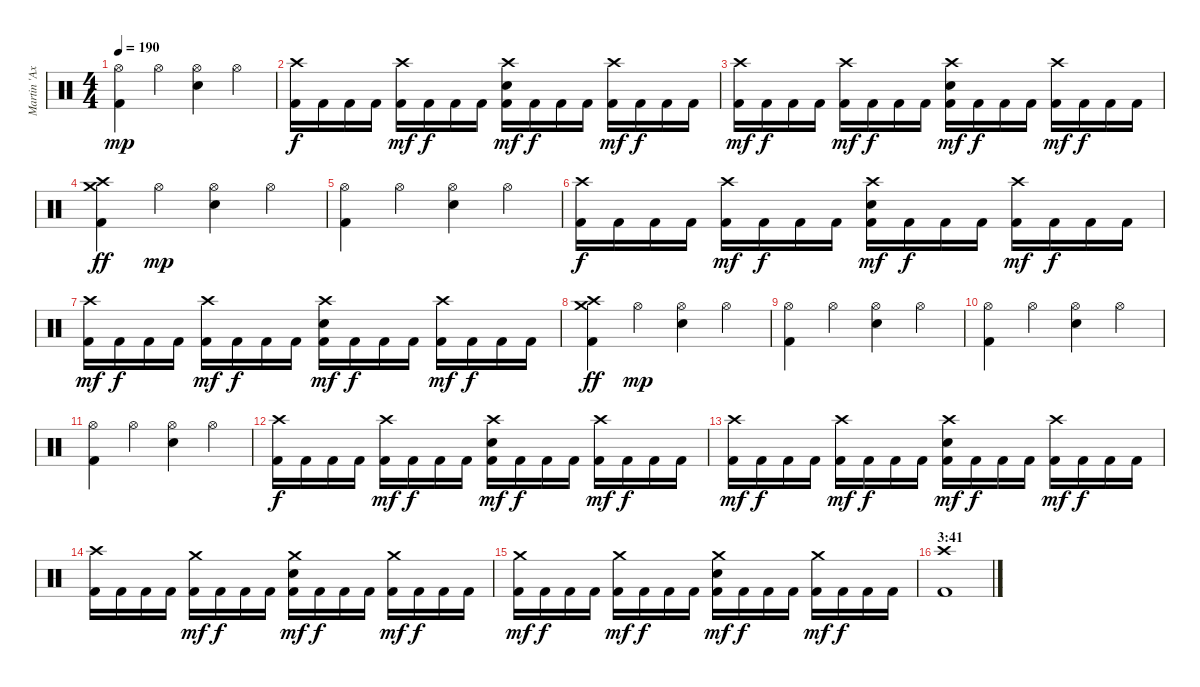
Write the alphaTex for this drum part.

\track ("Martin 'Axe' Axenroth" "Martin 'Ax") {instrument percussion}
\staff {score}
\articulation defaults
\ts (4 4)
\tempo 190
\clef neutral
\ks c
("Kick (hit) 2" "Hi-Hat (open)").4{dy mp} "Hi-Hat (open)".4 ("Electric Snare (hit)" "Hi-Hat (open)").4 "Hi-Hat (open)".4 |
("Kick (hit) 2" "Crash high (hit)").16{dy f} "Kick (hit) 2".16 "Kick (hit) 2".16 "Kick (hit) 2".16 ("Kick (hit) 2" "Crash high (hit)").16{dy mf} "Kick (hit) 2".16{dy f} "Kick (hit) 2".16 "Kick (hit) 2".16 ("Kick (hit) 2" "Electric Snare (hit)" "Crash high (hit)").16{dy mf} "Kick (hit) 2".16{dy f} "Kick (hit) 2".16 "Kick (hit) 2".16 ("Kick (hit) 2" "Crash high (hit)").16{dy mf} "Kick (hit) 2".16{dy f} "Kick (hit) 2".16 "Kick (hit) 2".16 |
("Kick (hit) 2" "Crash high (hit)").16{dy mf} "Kick (hit) 2".16{dy f} "Kick (hit) 2".16 "Kick (hit) 2".16 ("Kick (hit) 2" "Crash high (hit)").16{dy mf} "Kick (hit) 2".16{dy f} "Kick (hit) 2".16 "Kick (hit) 2".16 ("Kick (hit) 2" "Electric Snare (hit)" "Crash high (hit)").16{dy mf} "Kick (hit) 2".16{dy f} "Kick (hit) 2".16 "Kick (hit) 2".16 ("Kick (hit) 2" "Crash high (hit)").16{dy mf} "Kick (hit) 2".16{dy f} "Kick (hit) 2".16 "Kick (hit) 2".16 |
("Kick (hit) 2" "Crash high (hit)" "Crash medium (hit)").4{dy ff} "Hi-Hat (open)".4{dy mp} ("Electric Snare (hit)" "Hi-Hat (open)").4 "Hi-Hat (open)".4 |
("Kick (hit) 2" "Hi-Hat (open)").4 "Hi-Hat (open)".4 ("Electric Snare (hit)" "Hi-Hat (open)").4 "Hi-Hat (open)".4 |
("Kick (hit) 2" "Crash high (hit)").16{dy f} "Kick (hit) 2".16 "Kick (hit) 2".16 "Kick (hit) 2".16 ("Kick (hit) 2" "Crash high (hit)").16{dy mf} "Kick (hit) 2".16{dy f} "Kick (hit) 2".16 "Kick (hit) 2".16 ("Kick (hit) 2" "Electric Snare (hit)" "Crash high (hit)").16{dy mf} "Kick (hit) 2".16{dy f} "Kick (hit) 2".16 "Kick (hit) 2".16 ("Kick (hit) 2" "Crash high (hit)").16{dy mf} "Kick (hit) 2".16{dy f} "Kick (hit) 2".16 "Kick (hit) 2".16 |
("Kick (hit) 2" "Crash high (hit)").16{dy mf} "Kick (hit) 2".16{dy f} "Kick (hit) 2".16 "Kick (hit) 2".16 ("Kick (hit) 2" "Crash high (hit)").16{dy mf} "Kick (hit) 2".16{dy f} "Kick (hit) 2".16 "Kick (hit) 2".16 ("Kick (hit) 2" "Electric Snare (hit)" "Crash high (hit)").16{dy mf} "Kick (hit) 2".16{dy f} "Kick (hit) 2".16 "Kick (hit) 2".16 ("Kick (hit) 2" "Crash high (hit)").16{dy mf} "Kick (hit) 2".16{dy f} "Kick (hit) 2".16 "Kick (hit) 2".16 |
("Kick (hit) 2" "Crash high (hit)" "Crash medium (hit)").4{dy ff} "Hi-Hat (open)".4{dy mp} ("Electric Snare (hit)" "Hi-Hat (open)").4 "Hi-Hat (open)".4 |
("Kick (hit) 2" "Hi-Hat (open)").4 "Hi-Hat (open)".4 ("Electric Snare (hit)" "Hi-Hat (open)").4 "Hi-Hat (open)".4 |
("Kick (hit) 2" "Hi-Hat (open)").4 "Hi-Hat (open)".4 ("Electric Snare (hit)" "Hi-Hat (open)").4 "Hi-Hat (open)".4 |
("Kick (hit) 2" "Hi-Hat (open)").4 "Hi-Hat (open)".4 ("Electric Snare (hit)" "Hi-Hat (open)").4 "Hi-Hat (open)".4 |
("Kick (hit) 2" "Crash high (hit)").16{dy f} "Kick (hit) 2".16 "Kick (hit) 2".16 "Kick (hit) 2".16 ("Kick (hit) 2" "Crash high (hit)").16{dy mf} "Kick (hit) 2".16{dy f} "Kick (hit) 2".16 "Kick (hit) 2".16 ("Kick (hit) 2" "Electric Snare (hit)" "Crash high (hit)").16{dy mf} "Kick (hit) 2".16{dy f} "Kick (hit) 2".16 "Kick (hit) 2".16 ("Kick (hit) 2" "Crash high (hit)").16{dy mf} "Kick (hit) 2".16{dy f} "Kick (hit) 2".16 "Kick (hit) 2".16 |
("Kick (hit) 2" "Crash high (hit)").16{dy mf} "Kick (hit) 2".16{dy f} "Kick (hit) 2".16 "Kick (hit) 2".16 ("Kick (hit) 2" "Crash high (hit)").16{dy mf} "Kick (hit) 2".16{dy f} "Kick (hit) 2".16 "Kick (hit) 2".16 ("Kick (hit) 2" "Electric Snare (hit)" "Crash high (hit)").16{dy mf} "Kick (hit) 2".16{dy f} "Kick (hit) 2".16 "Kick (hit) 2".16 ("Kick (hit) 2" "Crash high (hit)").16{dy mf} "Kick (hit) 2".16{dy f} "Kick (hit) 2".16 "Kick (hit) 2".16 |
("Kick (hit) 2" "Crash high (hit)").16 "Kick (hit) 2".16 "Kick (hit) 2".16 "Kick (hit) 2".16 ("Kick (hit) 2" "Crash medium (hit)").16{dy mf} "Kick (hit) 2".16{dy f} "Kick (hit) 2".16 "Kick (hit) 2".16 ("Kick (hit) 2" "Electric Snare (hit)" "Crash medium (hit)").16{dy mf} "Kick (hit) 2".16{dy f} "Kick (hit) 2".16 "Kick (hit) 2".16 ("Kick (hit) 2" "Crash medium (hit)").16{dy mf} "Kick (hit) 2".16{dy f} "Kick (hit) 2".16 "Kick (hit) 2".16 |
("Kick (hit) 2" "Crash medium (hit)").16{dy mf} "Kick (hit) 2".16{dy f} "Kick (hit) 2".16 "Kick (hit) 2".16 ("Kick (hit) 2" "Crash medium (hit)").16{dy mf} "Kick (hit) 2".16{dy f} "Kick (hit) 2".16 "Kick (hit) 2".16 ("Kick (hit) 2" "Electric Snare (hit)" "Crash medium (hit)").16{dy mf} "Kick (hit) 2".16{dy f} "Kick (hit) 2".16 "Kick (hit) 2".16 ("Kick (hit) 2" "Crash medium (hit)").16{dy mf} "Kick (hit) 2".16{dy f} "Kick (hit) 2".16 "Kick (hit) 2".16 |
\section ("" "3:41")
("Kick (hit) 2" "Crash high (hit)").1
